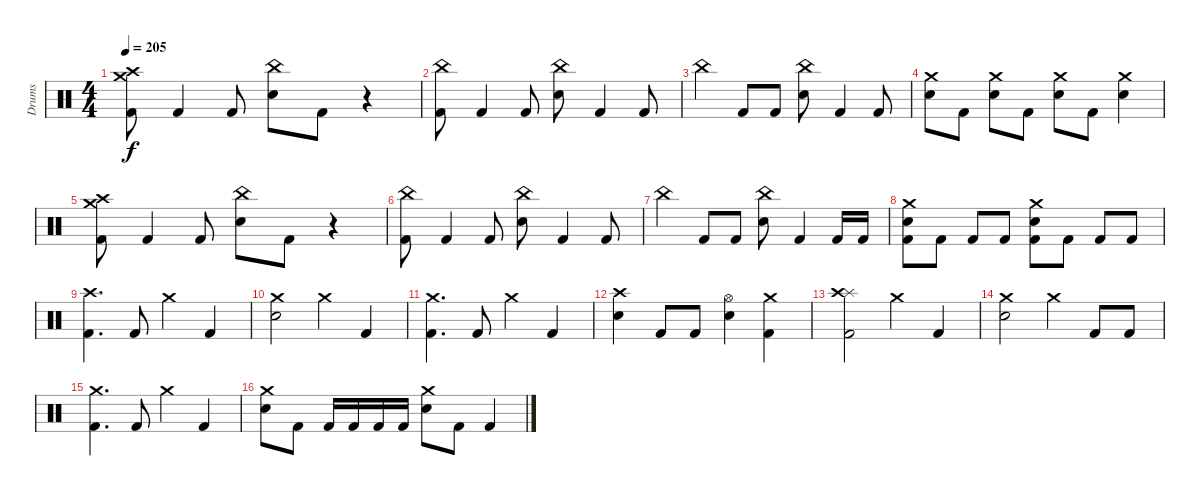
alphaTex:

\track ("Drums" "Drums") {instrument percussion}
\staff {score}
\articulation defaults
\ts (4 4)
\tempo 205
\clef neutral
\ks c
("Crash medium (hit)" "Crash high (hit)" "Kick (hit) 2").8{dy f} "Kick (hit) 2".4 "Kick (hit) 2".8 ("China (hit)" "Electric Snare (hit)").8 "Kick (hit) 2".8 r.4 |
("China (hit)" "Kick (hit) 2").8 "Kick (hit) 2".4 "Kick (hit) 2".8 ("China (hit)" "Electric Snare (hit)").8 "Kick (hit) 2".4 "Kick (hit) 2".8 |
"China (hit)".4 "Kick (hit) 2".8 "Kick (hit) 2".8 ("China (hit)" "Electric Snare (hit)").8 "Kick (hit) 2".4 "Kick (hit) 2".8 |
("Crash medium (hit)" "Electric Snare (hit)").8 "Kick (hit) 2".8 ("Crash medium (hit)" "Electric Snare (hit)").8 "Kick (hit) 2".8 ("Crash medium (hit)" "Electric Snare (hit)").8 "Kick (hit) 2".8 ("Crash medium (hit)" "Electric Snare (hit)").4 |
("Crash medium (hit)" "Crash high (hit)" "Kick (hit) 2").8 "Kick (hit) 2".4 "Kick (hit) 2".8 ("China (hit)" "Electric Snare (hit)").8 "Kick (hit) 2".8 r.4 |
("China (hit)" "Kick (hit) 2").8 "Kick (hit) 2".4 "Kick (hit) 2".8 ("China (hit)" "Electric Snare (hit)").8 "Kick (hit) 2".4 "Kick (hit) 2".8 |
"China (hit)".4 "Kick (hit) 2".8 "Kick (hit) 2".8 ("China (hit)" "Electric Snare (hit)").8 "Kick (hit) 2".4 "Kick (hit) 2".16 "Kick (hit) 2".16 |
("Crash medium (hit)" "Electric Snare (hit)" "Kick (hit) 2").8 "Kick (hit) 2".8 "Kick (hit) 2".8 "Kick (hit) 2".8 ("Crash medium (hit)" "Electric Snare (hit)" "Kick (hit) 2").8 "Kick (hit) 2".8 "Kick (hit) 2".8 "Kick (hit) 2".8 |
("Crash high (hit)" "Kick (hit) 2").4{d} "Kick (hit) 2".8 "Crash medium (hit)".4 "Kick (hit) 2".4 |
("Crash medium (hit)" "Electric Snare (hit)").2 "Crash medium (hit)".4 "Kick (hit) 2".4 |
("Crash medium (hit)" "Kick (hit) 2").4{d} "Kick (hit) 2".8 "Crash medium (hit)".4 "Kick (hit) 2".4 |
("Crash high (hit)" "Electric Snare (hit)").4 "Kick (hit) 2".8 "Kick (hit) 2".8 ("Hi-Hat (open)" "Electric Snare (hit)").4 ("Crash medium (hit)" "Kick (hit) 2").4 |
("Splash (hit)" "Crash high (hit)" "Kick (hit) 2").2 "Crash medium (hit)".4 "Kick (hit) 2".4 |
("Crash medium (hit)" "Electric Snare (hit)").2 "Crash medium (hit)".4 "Kick (hit) 2".8 "Kick (hit) 2".8 |
("Crash medium (hit)" "Kick (hit) 2").4{d} "Kick (hit) 2".8 "Crash medium (hit)".4 "Kick (hit) 2".4 |
("Crash medium (hit)" "Electric Snare (hit)").8 "Kick (hit) 2".8 "Kick (hit) 2".16 "Kick (hit) 2".16 "Kick (hit) 2".16 "Kick (hit) 2".16 ("Crash medium (hit)" "Electric Snare (hit)").8 "Kick (hit) 2".8 "Kick (hit) 2".4
